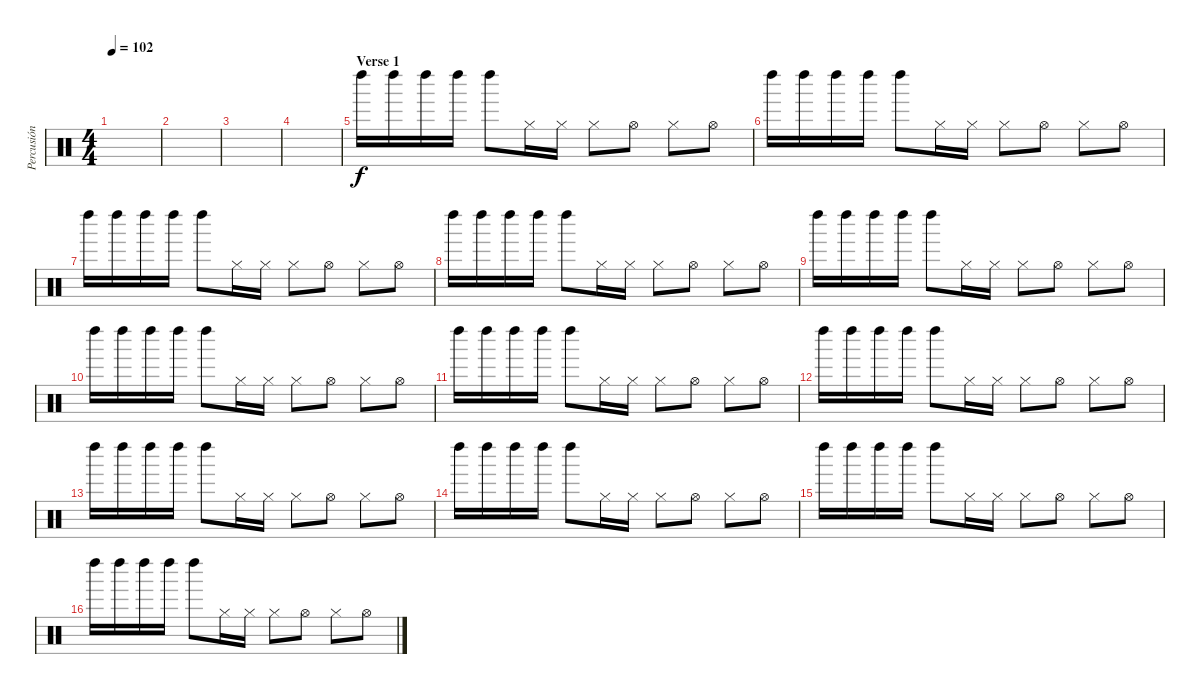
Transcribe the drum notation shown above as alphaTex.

\track ("Percusión" "Percusión") {instrument percussion}
\staff {score}
\articulation defaults
\ts (4 4)
\tempo 102
\clef neutral
\ks c
|
|
|
|
\section ("" "Verse 1")
"Left Maraca (hit)".16 "Left Maraca (hit)".16 "Left Maraca (hit)".16 "Left Maraca (hit)".16 "Left Maraca (hit)".8 "Hi-Hat (closed)".16 "Hi-Hat (closed)".16 "Hi-Hat (closed)".8 "Hi-Hat (open)".8 "Hi-Hat (closed)".8 "Hi-Hat (open)".8 |
"Left Maraca (hit)".16 "Left Maraca (hit)".16 "Left Maraca (hit)".16 "Left Maraca (hit)".16 "Left Maraca (hit)".8 "Hi-Hat (closed)".16 "Hi-Hat (closed)".16 "Hi-Hat (closed)".8 "Hi-Hat (open)".8 "Hi-Hat (closed)".8 "Hi-Hat (open)".8 |
"Left Maraca (hit)".16 "Left Maraca (hit)".16 "Left Maraca (hit)".16 "Left Maraca (hit)".16 "Left Maraca (hit)".8 "Hi-Hat (closed)".16 "Hi-Hat (closed)".16 "Hi-Hat (closed)".8 "Hi-Hat (open)".8 "Hi-Hat (closed)".8 "Hi-Hat (open)".8 |
"Left Maraca (hit)".16 "Left Maraca (hit)".16 "Left Maraca (hit)".16 "Left Maraca (hit)".16 "Left Maraca (hit)".8 "Hi-Hat (closed)".16 "Hi-Hat (closed)".16 "Hi-Hat (closed)".8 "Hi-Hat (open)".8 "Hi-Hat (closed)".8 "Hi-Hat (open)".8 |
"Left Maraca (hit)".16 "Left Maraca (hit)".16 "Left Maraca (hit)".16 "Left Maraca (hit)".16 "Left Maraca (hit)".8 "Hi-Hat (closed)".16 "Hi-Hat (closed)".16 "Hi-Hat (closed)".8 "Hi-Hat (open)".8 "Hi-Hat (closed)".8 "Hi-Hat (open)".8 |
"Left Maraca (hit)".16 "Left Maraca (hit)".16 "Left Maraca (hit)".16 "Left Maraca (hit)".16 "Left Maraca (hit)".8 "Hi-Hat (closed)".16 "Hi-Hat (closed)".16 "Hi-Hat (closed)".8 "Hi-Hat (open)".8 "Hi-Hat (closed)".8 "Hi-Hat (open)".8 |
"Left Maraca (hit)".16 "Left Maraca (hit)".16 "Left Maraca (hit)".16 "Left Maraca (hit)".16 "Left Maraca (hit)".8 "Hi-Hat (closed)".16 "Hi-Hat (closed)".16 "Hi-Hat (closed)".8 "Hi-Hat (open)".8 "Hi-Hat (closed)".8 "Hi-Hat (open)".8 |
"Left Maraca (hit)".16 "Left Maraca (hit)".16 "Left Maraca (hit)".16 "Left Maraca (hit)".16 "Left Maraca (hit)".8 "Hi-Hat (closed)".16 "Hi-Hat (closed)".16 "Hi-Hat (closed)".8 "Hi-Hat (open)".8 "Hi-Hat (closed)".8 "Hi-Hat (open)".8 |
"Left Maraca (hit)".16 "Left Maraca (hit)".16 "Left Maraca (hit)".16 "Left Maraca (hit)".16 "Left Maraca (hit)".8 "Hi-Hat (closed)".16 "Hi-Hat (closed)".16 "Hi-Hat (closed)".8 "Hi-Hat (open)".8 "Hi-Hat (closed)".8 "Hi-Hat (open)".8 |
"Left Maraca (hit)".16 "Left Maraca (hit)".16 "Left Maraca (hit)".16 "Left Maraca (hit)".16 "Left Maraca (hit)".8 "Hi-Hat (closed)".16 "Hi-Hat (closed)".16 "Hi-Hat (closed)".8 "Hi-Hat (open)".8 "Hi-Hat (closed)".8 "Hi-Hat (open)".8 |
"Left Maraca (hit)".16 "Left Maraca (hit)".16 "Left Maraca (hit)".16 "Left Maraca (hit)".16 "Left Maraca (hit)".8 "Hi-Hat (closed)".16 "Hi-Hat (closed)".16 "Hi-Hat (closed)".8 "Hi-Hat (open)".8 "Hi-Hat (closed)".8 "Hi-Hat (open)".8 |
"Left Maraca (hit)".16 "Left Maraca (hit)".16 "Left Maraca (hit)".16 "Left Maraca (hit)".16 "Left Maraca (hit)".8 "Hi-Hat (closed)".16 "Hi-Hat (closed)".16 "Hi-Hat (closed)".8 "Hi-Hat (open)".8 "Hi-Hat (closed)".8 "Hi-Hat (open)".8
